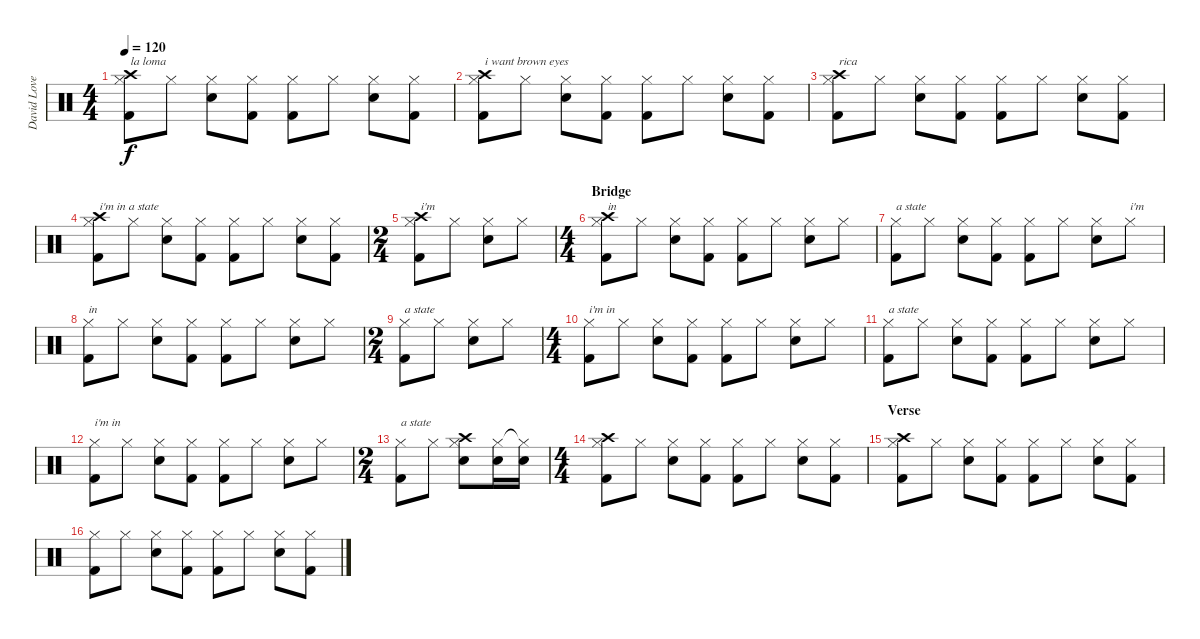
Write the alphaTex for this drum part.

\track ("David Lovering" "David Love") {instrument percussion}
\staff {score}
\articulation defaults
\ts (4 4)
\tempo 120
\clef neutral
\ks c
("Hi-Hat (closed)" "Crash high (hit)" "Kick (hit) 2").8{txt "la loma" dy f} "Hi-Hat (closed)".8 ("Hi-Hat (closed)" "Snare (hit) 2").8 ("Hi-Hat (closed)" "Kick (hit) 2").8 ("Hi-Hat (closed)" "Kick (hit) 2").8 "Hi-Hat (closed)".8 ("Hi-Hat (closed)" "Snare (hit) 2").8 ("Hi-Hat (closed)" "Kick (hit) 2").8 |
("Hi-Hat (closed)" "Crash high (hit)" "Kick (hit) 2").8{txt "i want brown eyes"} "Hi-Hat (closed)".8 ("Hi-Hat (closed)" "Snare (hit) 2").8 ("Hi-Hat (closed)" "Kick (hit) 2").8 ("Hi-Hat (closed)" "Kick (hit) 2").8 "Hi-Hat (closed)".8 ("Hi-Hat (closed)" "Snare (hit) 2").8 ("Hi-Hat (closed)" "Kick (hit) 2").8 |
("Hi-Hat (closed)" "Crash high (hit)" "Kick (hit) 2").8{txt "rica"} "Hi-Hat (closed)".8 ("Hi-Hat (closed)" "Snare (hit) 2").8 ("Hi-Hat (closed)" "Kick (hit) 2").8 ("Hi-Hat (closed)" "Kick (hit) 2").8 "Hi-Hat (closed)".8 ("Hi-Hat (closed)" "Snare (hit) 2").8 ("Hi-Hat (closed)" "Kick (hit) 2").8 |
("Hi-Hat (closed)" "Crash high (hit)" "Kick (hit) 2").8{txt "i'm in a state"} "Hi-Hat (closed)".8 ("Hi-Hat (closed)" "Snare (hit) 2").8 ("Hi-Hat (closed)" "Kick (hit) 2").8 ("Hi-Hat (closed)" "Kick (hit) 2").8 "Hi-Hat (closed)".8 ("Hi-Hat (closed)" "Snare (hit) 2").8 ("Hi-Hat (closed)" "Kick (hit) 2").8 |
\ts (2 4)
("Hi-Hat (closed)" "Crash high (hit)" "Kick (hit) 2").8{txt "i'm "} "Hi-Hat (closed)".8 ("Hi-Hat (closed)" "Snare (hit) 2").8 "Hi-Hat (closed)".8 |
\ts (4 4)
\section ("" "Bridge")
("Hi-Hat (closed)" "Crash high (hit)" "Kick (hit) 2").8{txt "in "} "Hi-Hat (closed)".8 ("Hi-Hat (closed)" "Snare (hit) 2").8 ("Hi-Hat (closed)" "Kick (hit) 2").8 ("Hi-Hat (closed)" "Kick (hit) 2").8 "Hi-Hat (closed)".8 ("Hi-Hat (closed)" "Snare (hit) 2").8 "Hi-Hat (closed)".8 |
("Hi-Hat (closed)" "Kick (hit) 2").8{txt "a state"} "Hi-Hat (closed)".8 ("Hi-Hat (closed)" "Snare (hit) 2").8 ("Hi-Hat (closed)" "Kick (hit) 2").8 ("Hi-Hat (closed)" "Kick (hit) 2").8 "Hi-Hat (closed)".8 ("Hi-Hat (closed)" "Snare (hit) 2").8 "Hi-Hat (closed)".8{txt "i'm"} |
("Hi-Hat (closed)" "Kick (hit) 2").8{txt "in"} "Hi-Hat (closed)".8 ("Hi-Hat (closed)" "Snare (hit) 2").8 ("Hi-Hat (closed)" "Kick (hit) 2").8 ("Hi-Hat (closed)" "Kick (hit) 2").8 "Hi-Hat (closed)".8 ("Hi-Hat (closed)" "Snare (hit) 2").8 "Hi-Hat (closed)".8 |
\ts (2 4)
("Hi-Hat (closed)" "Kick (hit) 2").8{txt "a state"} "Hi-Hat (closed)".8 ("Hi-Hat (closed)" "Snare (hit) 2").8 "Hi-Hat (closed)".8 |
\ts (4 4)
("Hi-Hat (closed)" "Kick (hit) 2").8{txt "i'm in"} "Hi-Hat (closed)".8 ("Hi-Hat (closed)" "Snare (hit) 2").8 ("Hi-Hat (closed)" "Kick (hit) 2").8 ("Hi-Hat (closed)" "Kick (hit) 2").8 "Hi-Hat (closed)".8 ("Hi-Hat (closed)" "Snare (hit) 2").8 "Hi-Hat (closed)".8 |
("Hi-Hat (closed)" "Kick (hit) 2").8{txt "a state"} "Hi-Hat (closed)".8 ("Hi-Hat (closed)" "Snare (hit) 2").8 ("Hi-Hat (closed)" "Kick (hit) 2").8 ("Hi-Hat (closed)" "Kick (hit) 2").8 "Hi-Hat (closed)".8 ("Hi-Hat (closed)" "Snare (hit) 2").8 "Hi-Hat (closed)".8 |
("Hi-Hat (closed)" "Kick (hit) 2").8{txt "i'm in"} "Hi-Hat (closed)".8 ("Hi-Hat (closed)" "Snare (hit) 2").8 ("Hi-Hat (closed)" "Kick (hit) 2").8 ("Hi-Hat (closed)" "Kick (hit) 2").8 "Hi-Hat (closed)".8 ("Hi-Hat (closed)" "Snare (hit) 2").8 "Hi-Hat (closed)".8 |
\ts (2 4)
("Hi-Hat (closed)" "Kick (hit) 2").8{txt "a state"} "Hi-Hat (closed)".8 ("Hi-Hat (closed)" "Crash high (hit)" "Snare (hit) 2").8 ("Hi-Hat (closed)" "Snare (hit) 2").16 ("Hi-Hat (closed)"{t} "Snare (hit) 2").16 |
\ts (4 4)
("Hi-Hat (closed)" "Crash high (hit)" "Kick (hit) 2").8 "Hi-Hat (closed)".8 ("Hi-Hat (closed)" "Snare (hit) 2").8 ("Hi-Hat (closed)" "Kick (hit) 2").8 ("Hi-Hat (closed)" "Kick (hit) 2").8 "Hi-Hat (closed)".8 ("Hi-Hat (closed)" "Snare (hit) 2").8 ("Hi-Hat (closed)" "Kick (hit) 2").8 |
\section ("" "Verse")
("Hi-Hat (closed)" "Crash high (hit)" "Kick (hit) 2").8 "Hi-Hat (closed)".8 ("Hi-Hat (closed)" "Snare (hit) 2").8 ("Hi-Hat (closed)" "Kick (hit) 2").8 ("Hi-Hat (closed)" "Kick (hit) 2").8 "Hi-Hat (closed)".8 ("Hi-Hat (closed)" "Snare (hit) 2").8 ("Hi-Hat (closed)" "Kick (hit) 2").8 |
("Hi-Hat (closed)" "Kick (hit) 2").8 "Hi-Hat (closed)".8 ("Hi-Hat (closed)" "Snare (hit) 2").8 ("Hi-Hat (closed)" "Kick (hit) 2").8 ("Hi-Hat (closed)" "Kick (hit) 2").8 "Hi-Hat (closed)".8 ("Hi-Hat (closed)" "Snare (hit) 2").8 ("Hi-Hat (closed)" "Kick (hit) 2").8
